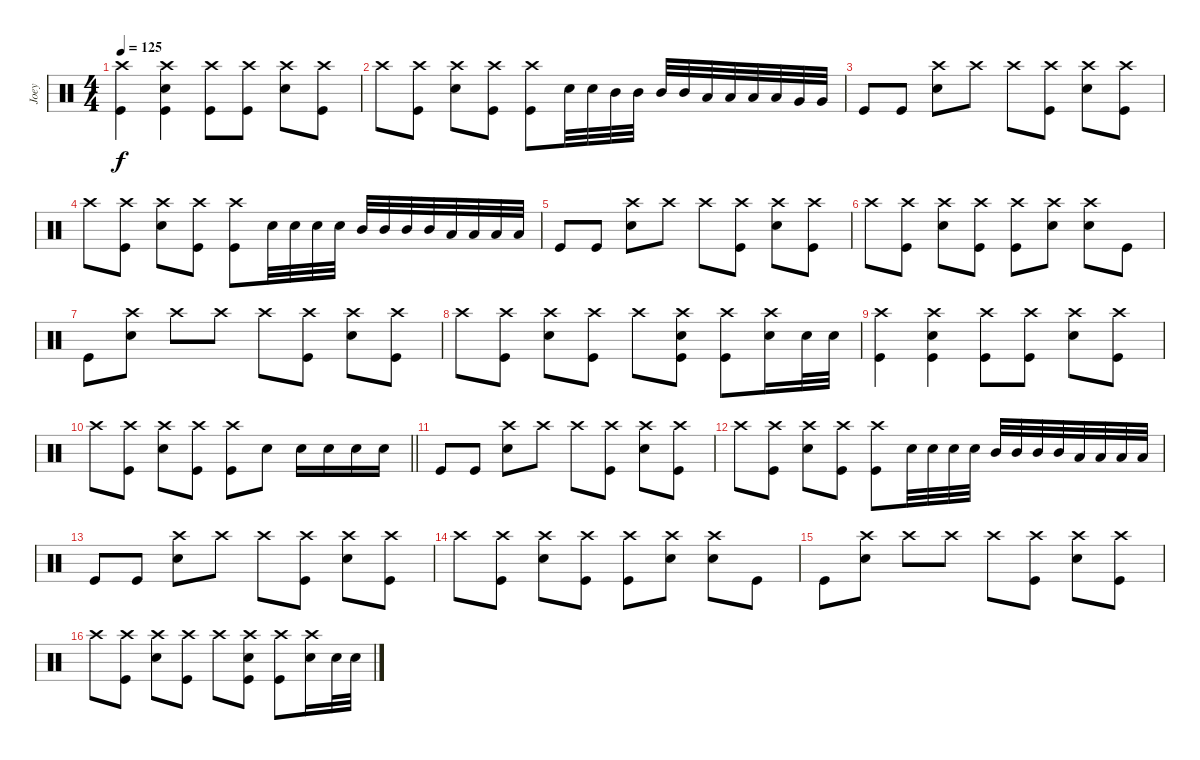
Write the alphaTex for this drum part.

\track ("Joey" "Joey") {instrument percussion}
\staff {score}
\articulation defaults
\ts (4 4)
\tempo 125
\clef neutral
\ks c
("Crash high (hit)" "Kick (hit)").4{dy f} ("Crash high (hit)" "Snare (hit) 2" "Kick (hit)").4 ("Crash high (hit)" "Kick (hit)").8 ("Crash high (hit)" "Kick (hit)").8 ("Crash high (hit)" "Snare (hit) 2").8 ("Crash high (hit)" "Kick (hit)").8 |
"Crash high (hit)".8 ("Crash high (hit)" "Kick (hit)").8 ("Crash high (hit)" "Snare (hit) 2").8 ("Crash high (hit)" "Kick (hit)").8 ("Crash high (hit)" "Kick (hit)").8 "Snare (hit) 2".32 "Snare (hit) 2".32 "Mid Tom (hit)".32 "Mid Tom (hit)".32 "Mid Tom (hit)".32 "Mid Tom (hit)".32 "Low Tom (hit)".32 "Low Tom (hit)".32 "Low Tom (hit)".32 "Low Tom (hit)".32 "Very Low Tom (hit)".32 "Very Low Tom (hit)".32 |
"Kick (hit)".8 "Kick (hit)".8 ("Crash high (hit)" "Snare (hit) 2").8 "Crash high (hit)".8 "Crash high (hit)".8 ("Crash high (hit)" "Kick (hit)").8 ("Crash high (hit)" "Snare (hit) 2").8 ("Crash high (hit)" "Kick (hit)").8 |
"Crash high (hit)".8 ("Crash high (hit)" "Kick (hit)").8 ("Crash high (hit)" "Snare (hit) 2").8 ("Crash high (hit)" "Kick (hit)").8 ("Crash high (hit)" "Kick (hit)").8 "Snare (hit) 2".32 "Snare (hit) 2".32 "Snare (hit) 2".32 "Snare (hit) 2".32 "Mid Tom (hit)".32 "Mid Tom (hit)".32 "Mid Tom (hit)".32 "Mid Tom (hit)".32 "Low Tom (hit)".32 "Low Tom (hit)".32 "Low Tom (hit)".32 "Low Tom (hit)".32 |
"Kick (hit)".8 "Kick (hit)".8 ("Crash high (hit)" "Snare (hit) 2").8 "Crash high (hit)".8 "Crash high (hit)".8 ("Crash high (hit)" "Kick (hit)").8 ("Crash high (hit)" "Snare (hit) 2").8 ("Crash high (hit)" "Kick (hit)").8 |
"Crash high (hit)".8 ("Crash high (hit)" "Kick (hit)").8 ("Crash high (hit)" "Snare (hit) 2").8 ("Crash high (hit)" "Kick (hit)").8 ("Crash high (hit)" "Kick (hit)").8 ("Crash high (hit)" "Snare (hit) 2").8 ("Crash high (hit)" "Snare (hit) 2").8 "Kick (hit)".8 |
"Kick (hit)".8 ("Crash high (hit)" "Snare (hit) 2").8 "Crash high (hit)".8 "Crash high (hit)".8 "Crash high (hit)".8 ("Crash high (hit)" "Kick (hit)").8 ("Crash high (hit)" "Snare (hit) 2").8 ("Crash high (hit)" "Kick (hit)").8 |
"Crash high (hit)".8 ("Crash high (hit)" "Kick (hit)").8 ("Crash high (hit)" "Snare (hit) 2").8 ("Crash high (hit)" "Kick (hit)").8 "Crash high (hit)".8 ("Crash high (hit)" "Snare (hit) 2" "Kick (hit)").8 ("Crash high (hit)" "Kick (hit)").8 ("Crash high (hit)" "Snare (hit) 2").16 "Snare (hit) 2".32 "Snare (hit) 2".32 |
("Crash high (hit)" "Kick (hit)").4 ("Crash high (hit)" "Snare (hit) 2" "Kick (hit)").4 ("Crash high (hit)" "Kick (hit)").8 ("Crash high (hit)" "Kick (hit)").8 ("Crash high (hit)" "Snare (hit) 2").8 ("Crash high (hit)" "Kick (hit)").8 |
\barLineRight lightlight "Crash high (hit)".8
("Crash high (hit)" "Kick (hit)").8 ("Crash high (hit)" "Snare (hit) 2").8 ("Crash high (hit)" "Kick (hit)").8 ("Crash high (hit)" "Kick (hit)").8 "Snare (hit) 2".8 "Snare (hit) 2".16 "Snare (hit) 2".16 "Snare (hit) 2".16 "Snare (hit) 2".16 |
"Kick (hit)".8 "Kick (hit)".8 ("Crash high (hit)" "Snare (hit) 2").8 "Crash high (hit)".8 "Crash high (hit)".8 ("Crash high (hit)" "Kick (hit)").8 ("Crash high (hit)" "Snare (hit) 2").8 ("Crash high (hit)" "Kick (hit)").8 |
"Crash high (hit)".8 ("Crash high (hit)" "Kick (hit)").8 ("Crash high (hit)" "Snare (hit) 2").8 ("Crash high (hit)" "Kick (hit)").8 ("Crash high (hit)" "Kick (hit)").8 "Snare (hit) 2".32 "Snare (hit) 2".32 "Snare (hit) 2".32 "Snare (hit) 2".32 "Mid Tom (hit)".32 "Mid Tom (hit)".32 "Mid Tom (hit)".32 "Mid Tom (hit)".32 "Low Tom (hit)".32 "Low Tom (hit)".32 "Low Tom (hit)".32 "Low Tom (hit)".32 |
"Kick (hit)".8 "Kick (hit)".8 ("Crash high (hit)" "Snare (hit) 2").8 "Crash high (hit)".8 "Crash high (hit)".8 ("Crash high (hit)" "Kick (hit)").8 ("Crash high (hit)" "Snare (hit) 2").8 ("Crash high (hit)" "Kick (hit)").8 |
"Crash high (hit)".8 ("Crash high (hit)" "Kick (hit)").8 ("Crash high (hit)" "Snare (hit) 2").8 ("Crash high (hit)" "Kick (hit)").8 ("Crash high (hit)" "Kick (hit)").8 ("Crash high (hit)" "Snare (hit) 2").8 ("Crash high (hit)" "Snare (hit) 2").8 "Kick (hit)".8 |
"Kick (hit)".8 ("Crash high (hit)" "Snare (hit) 2").8 "Crash high (hit)".8 "Crash high (hit)".8 "Crash high (hit)".8 ("Crash high (hit)" "Kick (hit)").8 ("Crash high (hit)" "Snare (hit) 2").8 ("Crash high (hit)" "Kick (hit)").8 |
"Crash high (hit)".8 ("Crash high (hit)" "Kick (hit)").8 ("Crash high (hit)" "Snare (hit) 2").8 ("Crash high (hit)" "Kick (hit)").8 "Crash high (hit)".8 ("Crash high (hit)" "Snare (hit) 2" "Kick (hit)").8 ("Crash high (hit)" "Kick (hit)").8 ("Crash high (hit)" "Snare (hit) 2").16 "Snare (hit) 2".32 "Snare (hit) 2".32
